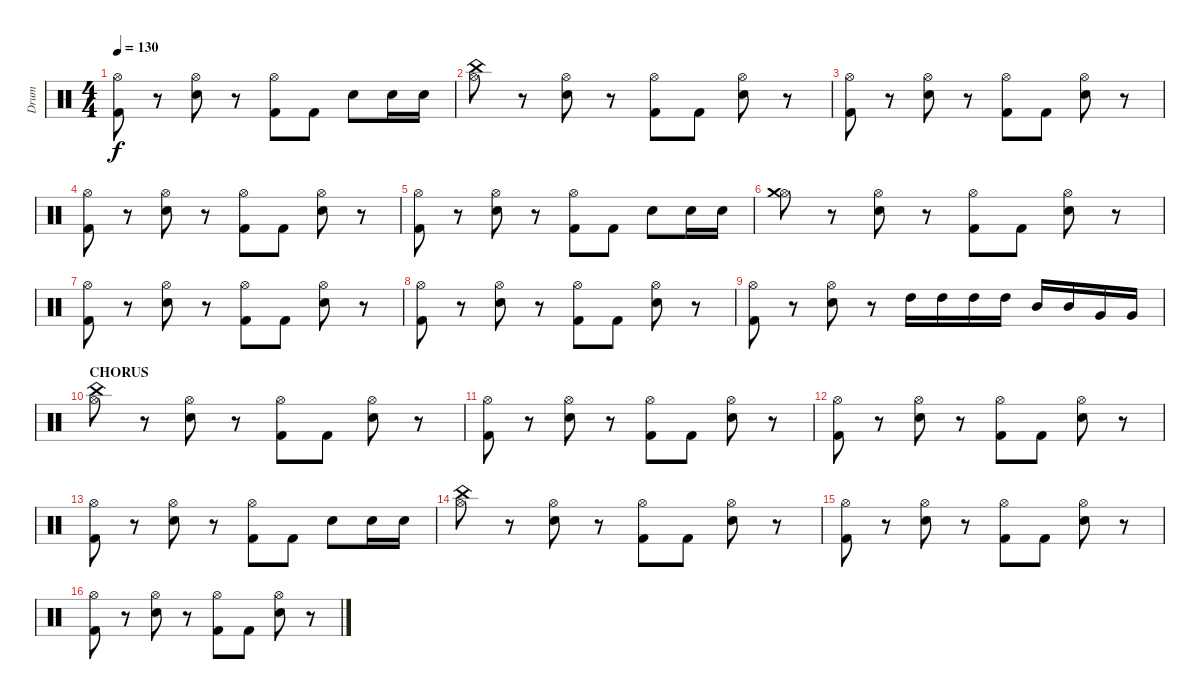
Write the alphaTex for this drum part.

\track ("Drum" "Drum") {instrument percussion}
\staff {score}
\articulation defaults
\ts (4 4)
\tempo 130
\clef neutral
\ks c
("Hi-Hat (open)" "Kick (hit) 2").8{dy f} r.8 ("Hi-Hat (open)" "Electric Snare (hit)").8 r.8 ("Hi-Hat (open)" "Kick (hit) 2").8 "Kick (hit) 2".8 "Electric Snare (hit)".8 "Electric Snare (hit)".16 "Electric Snare (hit)".16 |
("Hi-Hat (open)" "China (hit)").8 r.8 ("Hi-Hat (open)" "Electric Snare (hit)").8 r.8 ("Hi-Hat (open)" "Kick (hit) 2").8 "Kick (hit) 2".8 ("Hi-Hat (open)" "Electric Snare (hit)").8 r.8 |
("Hi-Hat (open)" "Kick (hit) 2").8 r.8 ("Hi-Hat (open)" "Electric Snare (hit)").8 r.8 ("Hi-Hat (open)" "Kick (hit) 2").8 "Kick (hit) 2".8 ("Hi-Hat (open)" "Electric Snare (hit)").8 r.8 |
("Hi-Hat (open)" "Kick (hit) 2").8 r.8 ("Hi-Hat (open)" "Electric Snare (hit)").8 r.8 ("Hi-Hat (open)" "Kick (hit) 2").8 "Kick (hit) 2".8 ("Hi-Hat (open)" "Electric Snare (hit)").8 r.8 |
("Hi-Hat (open)" "Kick (hit) 2").8 r.8 ("Hi-Hat (open)" "Electric Snare (hit)").8 r.8 ("Hi-Hat (open)" "Kick (hit) 2").8 "Kick (hit) 2".8 "Electric Snare (hit)".8 "Electric Snare (hit)".16 "Electric Snare (hit)".16 |
("Hi-Hat (open)" "Crash medium (hit)").8 r.8 ("Hi-Hat (open)" "Electric Snare (hit)").8 r.8 ("Hi-Hat (open)" "Kick (hit) 2").8 "Kick (hit) 2".8 ("Hi-Hat (open)" "Electric Snare (hit)").8 r.8 |
("Hi-Hat (open)" "Kick (hit) 2").8 r.8 ("Hi-Hat (open)" "Electric Snare (hit)").8 r.8 ("Hi-Hat (open)" "Kick (hit) 2").8 "Kick (hit) 2".8 ("Hi-Hat (open)" "Electric Snare (hit)").8 r.8 |
("Hi-Hat (open)" "Kick (hit) 2").8 r.8 ("Hi-Hat (open)" "Electric Snare (hit)").8 r.8 ("Hi-Hat (open)" "Kick (hit) 2").8 "Kick (hit) 2".8 ("Hi-Hat (open)" "Electric Snare (hit)").8 r.8 |
("Hi-Hat (open)" "Kick (hit) 2").8 r.8 ("Hi-Hat (open)" "Electric Snare (hit)").8 r.8 "High Tom (hit)".16 "High Tom (hit)".16 "High Tom (hit)".16 "High Tom (hit)".16 "Mid Tom (hit)".16 "Mid Tom (hit)".16 "Very Low Tom (hit)".16 "Very Low Tom (hit)".16 |
\section ("" "CHORUS")
("Hi-Hat (open)" "China (hit)").8 r.8 ("Hi-Hat (open)" "Electric Snare (hit)").8 r.8 ("Hi-Hat (open)" "Kick (hit) 2").8 "Kick (hit) 2".8 ("Hi-Hat (open)" "Electric Snare (hit)").8 r.8 |
("Hi-Hat (open)" "Kick (hit) 2").8 r.8 ("Hi-Hat (open)" "Electric Snare (hit)").8 r.8 ("Hi-Hat (open)" "Kick (hit) 2").8 "Kick (hit) 2".8 ("Hi-Hat (open)" "Electric Snare (hit)").8 r.8 |
("Hi-Hat (open)" "Kick (hit) 2").8 r.8 ("Hi-Hat (open)" "Electric Snare (hit)").8 r.8 ("Hi-Hat (open)" "Kick (hit) 2").8 "Kick (hit) 2".8 ("Hi-Hat (open)" "Electric Snare (hit)").8 r.8 |
("Hi-Hat (open)" "Kick (hit) 2").8 r.8 ("Hi-Hat (open)" "Electric Snare (hit)").8 r.8 ("Hi-Hat (open)" "Kick (hit) 2").8 "Kick (hit) 2".8 "Electric Snare (hit)".8 "Electric Snare (hit)".16 "Electric Snare (hit)".16 |
("Hi-Hat (open)" "China (hit)").8 r.8 ("Hi-Hat (open)" "Electric Snare (hit)").8 r.8 ("Hi-Hat (open)" "Kick (hit) 2").8 "Kick (hit) 2".8 ("Hi-Hat (open)" "Electric Snare (hit)").8 r.8 |
("Hi-Hat (open)" "Kick (hit) 2").8 r.8 ("Hi-Hat (open)" "Electric Snare (hit)").8 r.8 ("Hi-Hat (open)" "Kick (hit) 2").8 "Kick (hit) 2".8 ("Hi-Hat (open)" "Electric Snare (hit)").8 r.8 |
("Hi-Hat (open)" "Kick (hit) 2").8 r.8 ("Hi-Hat (open)" "Electric Snare (hit)").8 r.8 ("Hi-Hat (open)" "Kick (hit) 2").8 "Kick (hit) 2".8 ("Hi-Hat (open)" "Electric Snare (hit)").8 r.8
